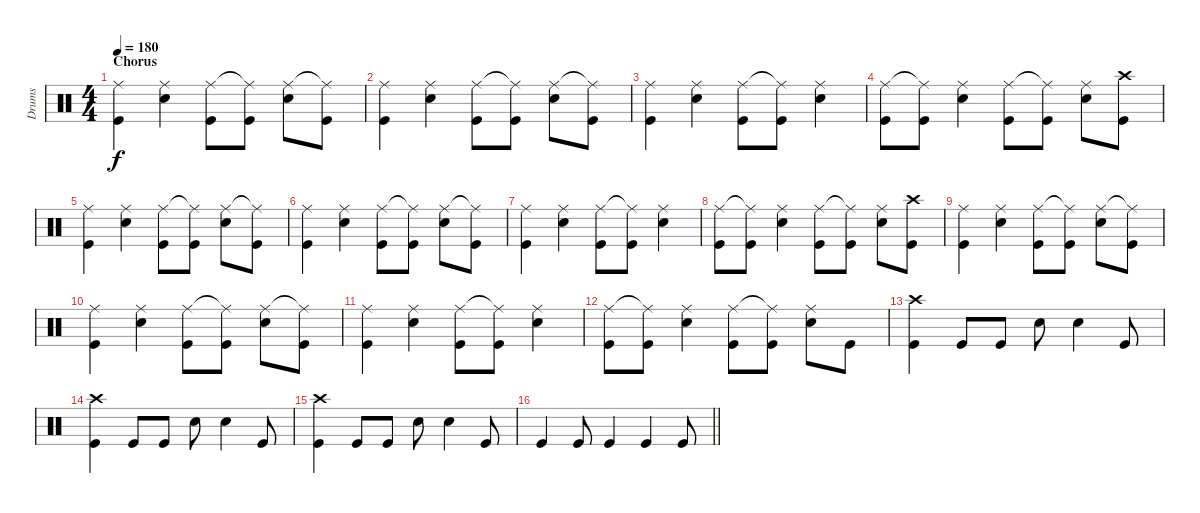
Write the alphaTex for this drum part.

\track ("Drums" "Drums") {instrument percussion}
\staff {score}
\articulation defaults
\ts (4 4)
\section ("" "Chorus")
\tempo 180
\clef neutral
\ks c
("Kick (hit)" "Ride (middle)").4{dy f} ("Snare (hit) 2" "Ride (middle)").4 ("Kick (hit)" "Ride (middle)").8 ("Kick (hit)" "Ride (middle)"{t}).8 ("Snare (hit) 2" "Ride (middle)").8 ("Kick (hit)" "Ride (middle)"{t}).8 |
("Kick (hit)" "Ride (middle)").4 ("Snare (hit) 2" "Ride (middle)").4 ("Kick (hit)" "Ride (middle)").8 ("Kick (hit)" "Ride (middle)"{t}).8 ("Snare (hit) 2" "Ride (middle)").8 ("Kick (hit)" "Ride (middle)"{t}).8 |
("Kick (hit)" "Ride (middle)").4 ("Snare (hit) 2" "Ride (middle)").4 ("Kick (hit)" "Ride (middle)").8 ("Kick (hit)" "Ride (middle)"{t}).8 ("Snare (hit) 2" "Ride (middle)").4 |
("Kick (hit)" "Ride (middle)").8 ("Kick (hit)" "Ride (middle)"{t}).8 ("Snare (hit) 2" "Ride (middle)").4 ("Kick (hit)" "Ride (middle)").8 ("Kick (hit)" "Ride (middle)"{t}).8 ("Snare (hit) 2" "Ride (middle)").8 ("Kick (hit)" "Crash high (hit)").8 |
("Kick (hit)" "Ride (middle)").4 ("Snare (hit) 2" "Ride (middle)").4 ("Kick (hit)" "Ride (middle)").8 ("Kick (hit)" "Ride (middle)"{t}).8 ("Snare (hit) 2" "Ride (middle)").8 ("Kick (hit)" "Ride (middle)"{t}).8 |
("Kick (hit)" "Ride (middle)").4 ("Snare (hit) 2" "Ride (middle)").4 ("Kick (hit)" "Ride (middle)").8 ("Kick (hit)" "Ride (middle)"{t}).8 ("Snare (hit) 2" "Ride (middle)").8 ("Kick (hit)" "Ride (middle)"{t}).8 |
("Kick (hit)" "Ride (middle)").4 ("Snare (hit) 2" "Ride (middle)").4 ("Kick (hit)" "Ride (middle)").8 ("Kick (hit)" "Ride (middle)"{t}).8 ("Snare (hit) 2" "Ride (middle)").4 |
("Kick (hit)" "Ride (middle)").8 ("Kick (hit)" "Ride (middle)"{t}).8 ("Snare (hit) 2" "Ride (middle)").4 ("Kick (hit)" "Ride (middle)").8 ("Kick (hit)" "Ride (middle)"{t}).8 ("Snare (hit) 2" "Ride (middle)").8 ("Kick (hit)" "Crash high (hit)").8 |
("Kick (hit)" "Ride (middle)").4 ("Snare (hit) 2" "Ride (middle)").4 ("Kick (hit)" "Ride (middle)").8 ("Kick (hit)" "Ride (middle)"{t}).8 ("Snare (hit) 2" "Ride (middle)").8 ("Kick (hit)" "Ride (middle)"{t}).8 |
("Kick (hit)" "Ride (middle)").4 ("Snare (hit) 2" "Ride (middle)").4 ("Kick (hit)" "Ride (middle)").8 ("Kick (hit)" "Ride (middle)"{t}).8 ("Snare (hit) 2" "Ride (middle)").8 ("Kick (hit)" "Ride (middle)"{t}).8 |
("Kick (hit)" "Ride (middle)").4 ("Snare (hit) 2" "Ride (middle)").4 ("Kick (hit)" "Ride (middle)").8 ("Kick (hit)" "Ride (middle)"{t}).8 ("Snare (hit) 2" "Ride (middle)").4 |
("Kick (hit)" "Ride (middle)").8 ("Kick (hit)" "Ride (middle)"{t}).8 ("Snare (hit) 2" "Ride (middle)").4 ("Kick (hit)" "Ride (middle)").8 ("Kick (hit)" "Ride (middle)"{t}).8 ("Snare (hit) 2" "Ride (middle)").8 "Kick (hit)".8 |
("Kick (hit)" "Crash high (hit)").4 "Kick (hit)".8 "Kick (hit)".8 "Snare (hit) 2".8 "Snare (hit) 2".4 "Kick (hit)".8 |
("Kick (hit)" "Crash high (hit)").4 "Kick (hit)".8 "Kick (hit)".8 "Snare (hit) 2".8 "Snare (hit) 2".4 "Kick (hit)".8 |
("Kick (hit)" "Crash high (hit)").4 "Kick (hit)".8 "Kick (hit)".8 "Snare (hit) 2".8 "Snare (hit) 2".4 "Kick (hit)".8 |
\barLineRight lightlight "Kick (hit)".4 "Kick (hit)".8 "Kick (hit)".4 "Kick (hit)".4 "Kick (hit)".8
